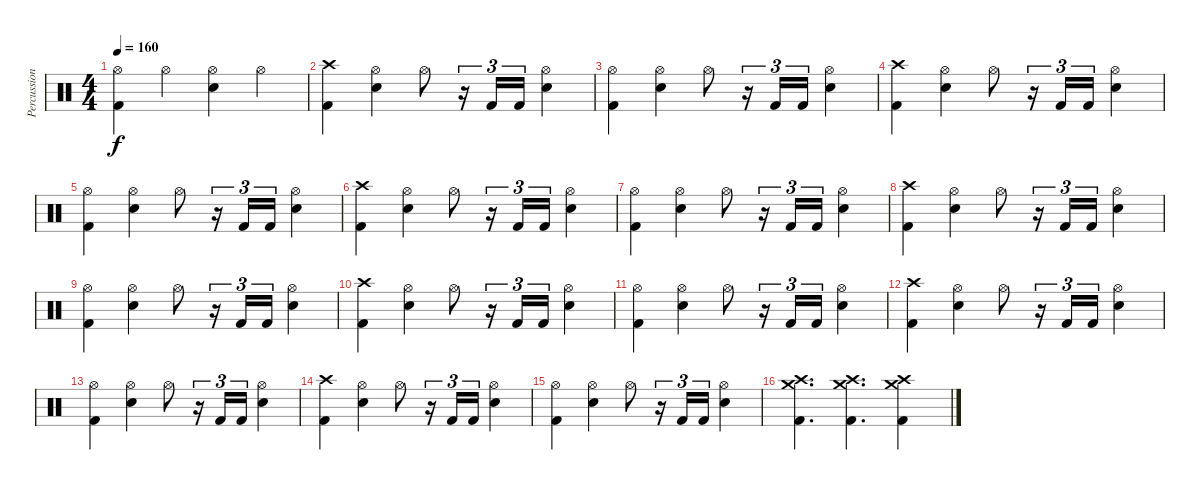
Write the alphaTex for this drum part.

\track ("Percussion" "Percussion") {instrument percussion}
\staff {score}
\articulation defaults
\ts (4 4)
\tempo 160
\clef neutral
\ks c
("Hi-Hat (open)" "Kick (hit) 2").4{dy f} "Hi-Hat (open)".4 ("Hi-Hat (open)" "Snare (hit) 2").4 "Hi-Hat (open)".4 |
("Crash high (hit)" "Kick (hit) 2").4 ("Hi-Hat (open)" "Snare (hit) 2").4 "Hi-Hat (open)".8 r.16{tu (3 2)} "Kick (hit) 2".16{tu (3 2)} "Kick (hit) 2".16{tu (3 2)} ("Hi-Hat (open)" "Snare (hit) 2").4 |
("Hi-Hat (open)" "Kick (hit) 2").4 ("Hi-Hat (open)" "Snare (hit) 2").4 "Hi-Hat (open)".8 r.16{tu (3 2)} "Kick (hit) 2".16{tu (3 2)} "Kick (hit) 2".16{tu (3 2)} ("Hi-Hat (open)" "Snare (hit) 2").4 |
("Crash high (hit)" "Kick (hit) 2").4 ("Hi-Hat (open)" "Snare (hit) 2").4 "Hi-Hat (open)".8 r.16{tu (3 2)} "Kick (hit) 2".16{tu (3 2)} "Kick (hit) 2".16{tu (3 2)} ("Hi-Hat (open)" "Snare (hit) 2").4 |
("Hi-Hat (open)" "Kick (hit) 2").4 ("Hi-Hat (open)" "Snare (hit) 2").4 "Hi-Hat (open)".8 r.16{tu (3 2)} "Kick (hit) 2".16{tu (3 2)} "Kick (hit) 2".16{tu (3 2)} ("Hi-Hat (open)" "Snare (hit) 2").4 |
("Crash high (hit)" "Kick (hit) 2").4 ("Hi-Hat (open)" "Snare (hit) 2").4 "Hi-Hat (open)".8 r.16{tu (3 2)} "Kick (hit) 2".16{tu (3 2)} "Kick (hit) 2".16{tu (3 2)} ("Hi-Hat (open)" "Snare (hit) 2").4 |
("Hi-Hat (open)" "Kick (hit) 2").4 ("Hi-Hat (open)" "Snare (hit) 2").4 "Hi-Hat (open)".8 r.16{tu (3 2)} "Kick (hit) 2".16{tu (3 2)} "Kick (hit) 2".16{tu (3 2)} ("Hi-Hat (open)" "Snare (hit) 2").4 |
("Crash high (hit)" "Kick (hit) 2").4 ("Hi-Hat (open)" "Snare (hit) 2").4 "Hi-Hat (open)".8 r.16{tu (3 2)} "Kick (hit) 2".16{tu (3 2)} "Kick (hit) 2".16{tu (3 2)} ("Hi-Hat (open)" "Snare (hit) 2").4 |
("Hi-Hat (open)" "Kick (hit) 2").4 ("Hi-Hat (open)" "Snare (hit) 2").4 "Hi-Hat (open)".8 r.16{tu (3 2)} "Kick (hit) 2".16{tu (3 2)} "Kick (hit) 2".16{tu (3 2)} ("Hi-Hat (open)" "Snare (hit) 2").4 |
("Crash high (hit)" "Kick (hit) 2").4 ("Hi-Hat (open)" "Snare (hit) 2").4 "Hi-Hat (open)".8 r.16{tu (3 2)} "Kick (hit) 2".16{tu (3 2)} "Kick (hit) 2".16{tu (3 2)} ("Hi-Hat (open)" "Snare (hit) 2").4 |
("Hi-Hat (open)" "Kick (hit) 2").4 ("Hi-Hat (open)" "Snare (hit) 2").4 "Hi-Hat (open)".8 r.16{tu (3 2)} "Kick (hit) 2".16{tu (3 2)} "Kick (hit) 2".16{tu (3 2)} ("Hi-Hat (open)" "Snare (hit) 2").4 |
("Crash high (hit)" "Kick (hit) 2").4 ("Hi-Hat (open)" "Snare (hit) 2").4 "Hi-Hat (open)".8 r.16{tu (3 2)} "Kick (hit) 2".16{tu (3 2)} "Kick (hit) 2".16{tu (3 2)} ("Hi-Hat (open)" "Snare (hit) 2").4 |
("Hi-Hat (open)" "Kick (hit) 2").4 ("Hi-Hat (open)" "Snare (hit) 2").4 "Hi-Hat (open)".8 r.16{tu (3 2)} "Kick (hit) 2".16{tu (3 2)} "Kick (hit) 2".16{tu (3 2)} ("Hi-Hat (open)" "Snare (hit) 2").4 |
("Crash high (hit)" "Kick (hit) 2").4 ("Hi-Hat (open)" "Snare (hit) 2").4 "Hi-Hat (open)".8 r.16{tu (3 2)} "Kick (hit) 2".16{tu (3 2)} "Kick (hit) 2".16{tu (3 2)} ("Hi-Hat (open)" "Snare (hit) 2").4 |
("Hi-Hat (open)" "Kick (hit) 2").4 ("Hi-Hat (open)" "Snare (hit) 2").4 "Hi-Hat (open)".8 r.16{tu (3 2)} "Kick (hit) 2".16{tu (3 2)} "Kick (hit) 2".16{tu (3 2)} ("Hi-Hat (open)" "Snare (hit) 2").4 |
("Crash high (hit)" "Crash medium (hit)" "Kick (hit) 2").4{d} ("Crash high (hit)" "Crash medium (hit)" "Kick (hit) 2").4{d} ("Crash high (hit)" "Crash medium (hit)" "Kick (hit) 2").4
